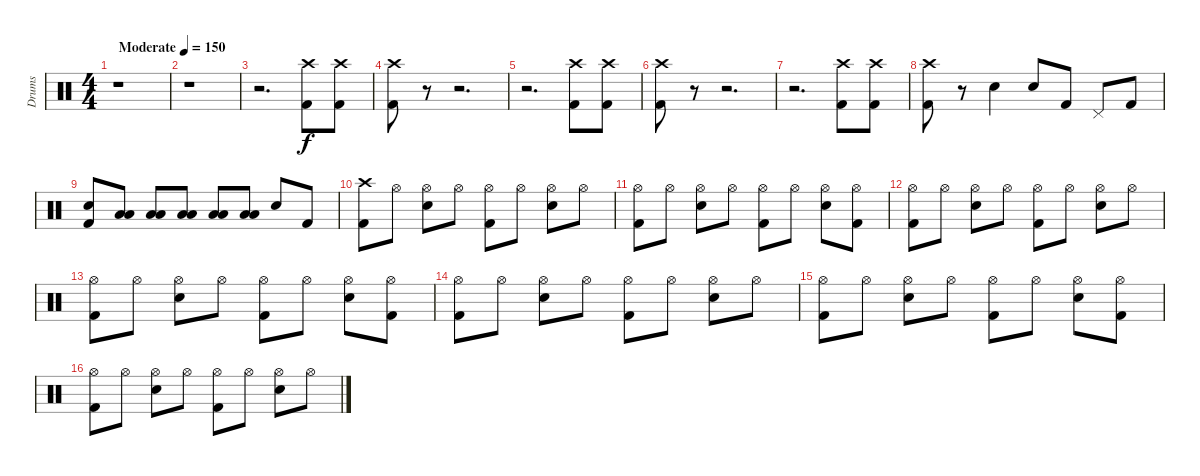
\track ("Drums" "Drums") {instrument percussion}
\staff {score}
\articulation defaults
\ts (4 4)
\tempo (150 "Moderate")
\clef neutral
\ks c
r.1{dy f} |
r.1 |
r.2{d} ("Crash high (hit)" "Kick (hit) 2").8 ("Crash high (hit)" "Kick (hit) 2").8 |
("Crash high (hit)" "Kick (hit) 2").8 r.8 r.2{d} |
r.2{d} ("Crash high (hit)" "Kick (hit) 2").8 ("Crash high (hit)" "Kick (hit) 2").8 |
("Crash high (hit)" "Kick (hit) 2").8 r.8 r.2{d} |
r.2{d} ("Crash high (hit)" "Kick (hit) 2").8 ("Crash high (hit)" "Kick (hit) 2").8 |
("Crash high (hit)" "Kick (hit) 2").8 r.8 "Snare (hit) 2".4 "Snare (hit) 2".8 "Kick (hit) 2".8 "Pedal Hi-Hat (hit)".8 "Kick (hit) 2".8 |
("Snare (hit) 2" "Kick (hit) 2").8 ("Low Floor Tom (hit)" "Low Floor Tom (hit)").8 ("Low Floor Tom (hit)" "Low Floor Tom (hit)").8 ("Low Floor Tom (hit)" "Low Floor Tom (hit)").8 ("Low Floor Tom (hit)" "Low Floor Tom (hit)").8 ("Low Floor Tom (hit)" "Low Floor Tom (hit)").8 "Snare (hit) 2".8 "Kick (hit) 2".8 |
("Crash high (hit)" "Kick (hit) 2").8 "Hi-Hat (open)".8 ("Hi-Hat (open)" "Snare (hit) 2").8 "Hi-Hat (open)".8 ("Hi-Hat (open)" "Kick (hit) 2").8 "Hi-Hat (open)".8 ("Hi-Hat (open)" "Snare (hit) 2").8 "Hi-Hat (open)".8 |
("Hi-Hat (open)" "Kick (hit) 2").8 "Hi-Hat (open)".8 ("Hi-Hat (open)" "Snare (hit) 2").8 "Hi-Hat (open)".8 ("Hi-Hat (open)" "Kick (hit) 2").8 "Hi-Hat (open)".8 ("Hi-Hat (open)" "Snare (hit) 2").8 ("Hi-Hat (open)" "Kick (hit) 2").8 |
("Hi-Hat (open)" "Kick (hit) 2").8 "Hi-Hat (open)".8 ("Hi-Hat (open)" "Snare (hit) 2").8 "Hi-Hat (open)".8 ("Hi-Hat (open)" "Kick (hit) 2").8 "Hi-Hat (open)".8 ("Hi-Hat (open)" "Snare (hit) 2").8 "Hi-Hat (open)".8 |
("Hi-Hat (open)" "Kick (hit) 2").8 "Hi-Hat (open)".8 ("Hi-Hat (open)" "Snare (hit) 2").8 "Hi-Hat (open)".8 ("Hi-Hat (open)" "Kick (hit) 2").8 "Hi-Hat (open)".8 ("Hi-Hat (open)" "Snare (hit) 2").8 ("Hi-Hat (open)" "Kick (hit) 2").8 |
("Hi-Hat (open)" "Kick (hit) 2").8 "Hi-Hat (open)".8 ("Hi-Hat (open)" "Snare (hit) 2").8 "Hi-Hat (open)".8 ("Hi-Hat (open)" "Kick (hit) 2").8 "Hi-Hat (open)".8 ("Hi-Hat (open)" "Snare (hit) 2").8 "Hi-Hat (open)".8 |
("Hi-Hat (open)" "Kick (hit) 2").8 "Hi-Hat (open)".8 ("Hi-Hat (open)" "Snare (hit) 2").8 "Hi-Hat (open)".8 ("Hi-Hat (open)" "Kick (hit) 2").8 "Hi-Hat (open)".8 ("Hi-Hat (open)" "Snare (hit) 2").8 ("Hi-Hat (open)" "Kick (hit) 2").8 |
("Hi-Hat (open)" "Kick (hit) 2").8 "Hi-Hat (open)".8 ("Hi-Hat (open)" "Snare (hit) 2").8 "Hi-Hat (open)".8 ("Hi-Hat (open)" "Kick (hit) 2").8 "Hi-Hat (open)".8 ("Hi-Hat (open)" "Snare (hit) 2").8 "Hi-Hat (open)".8
